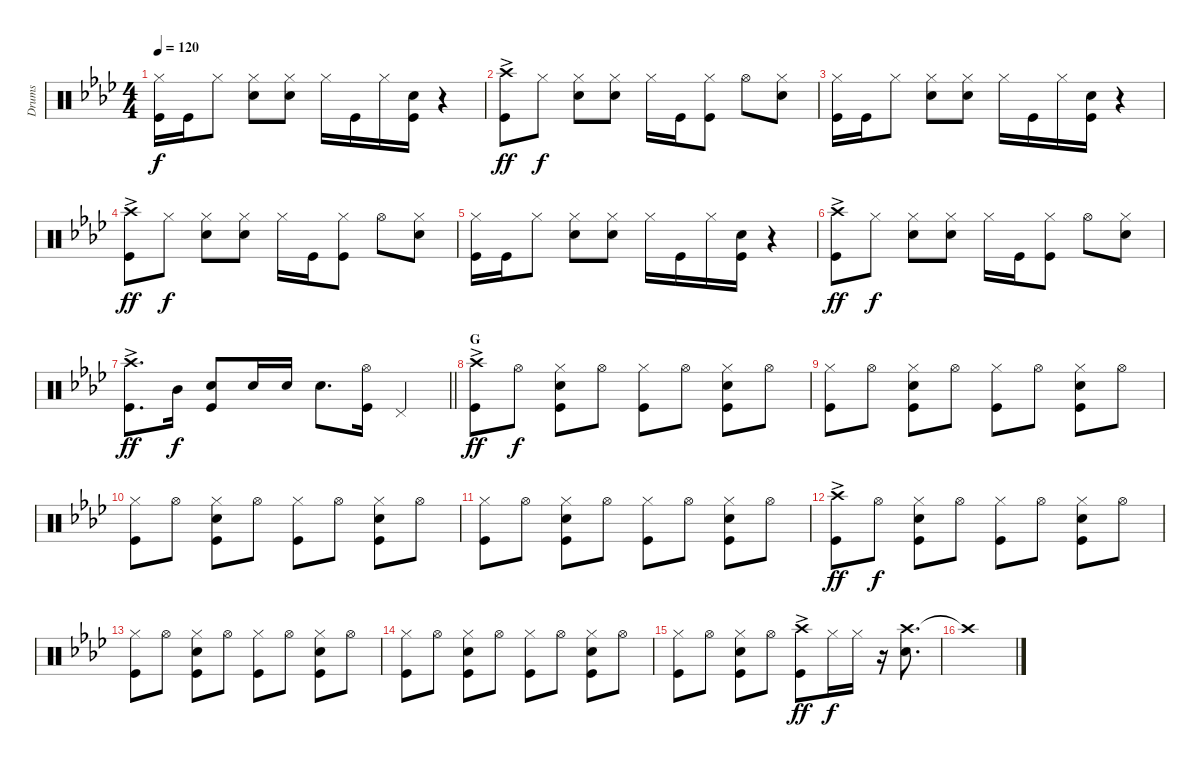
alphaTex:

\track ("Drums" "Drums") {instrument percussion}
\staff {score}
\articulation defaults
\ts (4 4)
\tempo 120
\clef neutral
\ks ab
("Hi-Hat (closed)" "Kick (hit)").16{dy f} "Kick (hit)".16 "Hi-Hat (closed)".8 ("Hi-Hat (closed)" "Snare (hit) 2").8 ("Hi-Hat (closed)" "Snare (hit) 2").8 "Hi-Hat (closed)".16 "Kick (hit)".16 "Hi-Hat (closed)".16 ("Snare (hit) 2" "Kick (hit)").16 r.4 |
("Crash high (hit)"{ac} "Kick (hit)").8{dy ff} "Hi-Hat (closed)".8{dy f} ("Hi-Hat (closed)" "Snare (hit) 2").8 ("Hi-Hat (closed)" "Snare (hit) 2").8 "Hi-Hat (closed)".16 "Kick (hit)".16 ("Hi-Hat (closed)" "Kick (hit)").8 "Hi-Hat (open)".8 ("Hi-Hat (closed)" "Snare (hit) 2").8 |
("Hi-Hat (closed)" "Kick (hit)").16 "Kick (hit)".16 "Hi-Hat (closed)".8 ("Hi-Hat (closed)" "Snare (hit) 2").8 ("Hi-Hat (closed)" "Snare (hit) 2").8 "Hi-Hat (closed)".16 "Kick (hit)".16 "Hi-Hat (closed)".16 ("Kick (hit)" "Snare (hit) 2").16 r.4 |
("Crash high (hit)"{ac} "Kick (hit)").8{dy ff} "Hi-Hat (closed)".8{dy f} ("Hi-Hat (closed)" "Snare (hit) 2").8 ("Hi-Hat (closed)" "Snare (hit) 2").8 "Hi-Hat (closed)".16 "Kick (hit)".16 ("Hi-Hat (closed)" "Kick (hit)").8 "Hi-Hat (open)".8 ("Hi-Hat (closed)" "Snare (hit) 2").8 |
("Hi-Hat (closed)" "Kick (hit)").16 "Kick (hit)".16 "Hi-Hat (closed)".8 ("Hi-Hat (closed)" "Snare (hit) 2").8 ("Hi-Hat (closed)" "Snare (hit) 2").8 "Hi-Hat (closed)".16 "Kick (hit)".16 "Hi-Hat (closed)".16 ("Kick (hit)" "Snare (hit) 2").16 r.4 |
("Crash high (hit)"{ac} "Kick (hit)").8{dy ff} "Hi-Hat (closed)".8{dy f} ("Hi-Hat (closed)" "Snare (hit) 2").8 ("Hi-Hat (closed)" "Snare (hit) 2").8 "Hi-Hat (closed)".16 "Kick (hit)".16 ("Hi-Hat (closed)" "Kick (hit)").8 "Hi-Hat (open)".8 ("Hi-Hat (closed)" "Snare (hit) 2").8 |
\barLineRight lightlight
("Crash high (hit)"{ac} "Kick (hit)").8{d dy ff} "Mid Tom (hit)".16{dy f} ("Snare (hit) 2" "Kick (hit)").8 "Snare (hit) 2".16 "Snare (hit) 2".16 "Snare (hit) 2".8{d} ("Hi-Hat (open)" "Kick (hit)").16 "Pedal Hi-Hat (hit)".4 |
\section ("" "G")
("Crash high (hit)"{ac} "Kick (hit)").8{dy ff} "Hi-Hat (open)".8{dy f} ("Hi-Hat (closed)" "Kick (hit)" "Snare (hit) 2").8 "Hi-Hat (open)".8 ("Hi-Hat (closed)" "Kick (hit)").8 "Hi-Hat (open)".8 ("Hi-Hat (closed)" "Kick (hit)" "Snare (hit) 2").8 "Hi-Hat (open)".8 |
("Hi-Hat (closed)" "Kick (hit)").8 "Hi-Hat (open)".8 ("Hi-Hat (closed)" "Kick (hit)" "Snare (hit) 2").8 "Hi-Hat (open)".8 ("Hi-Hat (closed)" "Kick (hit)").8 "Hi-Hat (open)".8 ("Hi-Hat (closed)" "Kick (hit)" "Snare (hit) 2").8 "Hi-Hat (open)".8 |
("Hi-Hat (closed)" "Kick (hit)").8 "Hi-Hat (open)".8 ("Hi-Hat (closed)" "Kick (hit)" "Snare (hit) 2").8 "Hi-Hat (open)".8 ("Hi-Hat (closed)" "Kick (hit)").8 "Hi-Hat (open)".8 ("Hi-Hat (closed)" "Kick (hit)" "Snare (hit) 2").8 "Hi-Hat (open)".8 |
("Hi-Hat (closed)" "Kick (hit)").8 "Hi-Hat (open)".8 ("Hi-Hat (closed)" "Kick (hit)" "Snare (hit) 2").8 "Hi-Hat (open)".8 ("Hi-Hat (closed)" "Kick (hit)").8 "Hi-Hat (open)".8 ("Hi-Hat (closed)" "Kick (hit)" "Snare (hit) 2").8 "Hi-Hat (open)".8 |
("Crash high (hit)"{ac} "Kick (hit)").8{dy ff} "Hi-Hat (open)".8{dy f} ("Hi-Hat (closed)" "Kick (hit)" "Snare (hit) 2").8 "Hi-Hat (open)".8 ("Hi-Hat (closed)" "Kick (hit)").8 "Hi-Hat (open)".8 ("Hi-Hat (closed)" "Kick (hit)" "Snare (hit) 2").8 "Hi-Hat (open)".8 |
("Hi-Hat (closed)" "Kick (hit)").8 "Hi-Hat (open)".8 ("Hi-Hat (closed)" "Kick (hit)" "Snare (hit) 2").8 "Hi-Hat (open)".8 ("Hi-Hat (closed)" "Kick (hit)").8 "Hi-Hat (open)".8 ("Hi-Hat (closed)" "Kick (hit)" "Snare (hit) 2").8 "Hi-Hat (open)".8 |
("Hi-Hat (closed)" "Kick (hit)").8 "Hi-Hat (open)".8 ("Hi-Hat (closed)" "Kick (hit)" "Snare (hit) 2").8 "Hi-Hat (open)".8 ("Hi-Hat (closed)" "Kick (hit)").8 "Hi-Hat (open)".8 ("Hi-Hat (closed)" "Kick (hit)" "Snare (hit) 2").8 "Hi-Hat (open)".8 |
("Hi-Hat (closed)" "Kick (hit)").8 "Hi-Hat (open)".8 ("Hi-Hat (closed)" "Kick (hit)" "Snare (hit) 2").8 "Hi-Hat (open)".8 ("Crash high (hit)"{ac} "Kick (hit)").8{dy ff} "Hi-Hat (closed)".16{dy f} "Hi-Hat (closed)".16 r.16 ("Crash high (hit)" "Snare (hit) 2").8{d} |
"Crash high (hit)"{t}.1
